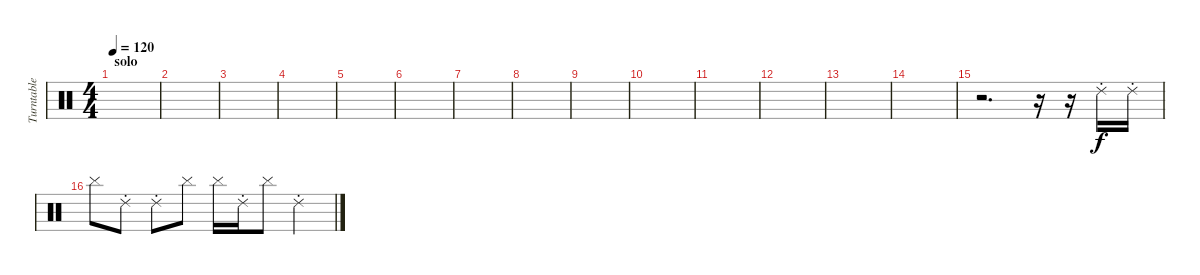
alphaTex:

\track ("Turntable" "Turntable") {instrument percussion}
\staff {score}
\articulation defaults
\ts (4 4)
\section ("" "solo")
\tempo 120
\clef neutral
\ks c
|
|
|
|
|
|
|
|
|
|
|
|
|
|
r.2{d} r.16 r.16 "Ride (choke) 2".16{dy f} "Ride (choke) 2".16 |
"Cymbal (hit)".8 "Ride (choke) 2".8 "Ride (choke) 2".8 "Cymbal (hit)".8 "Cymbal (hit)".16 "Ride (choke) 2".16 "Cymbal (hit)".8 "Ride (choke) 2".4
